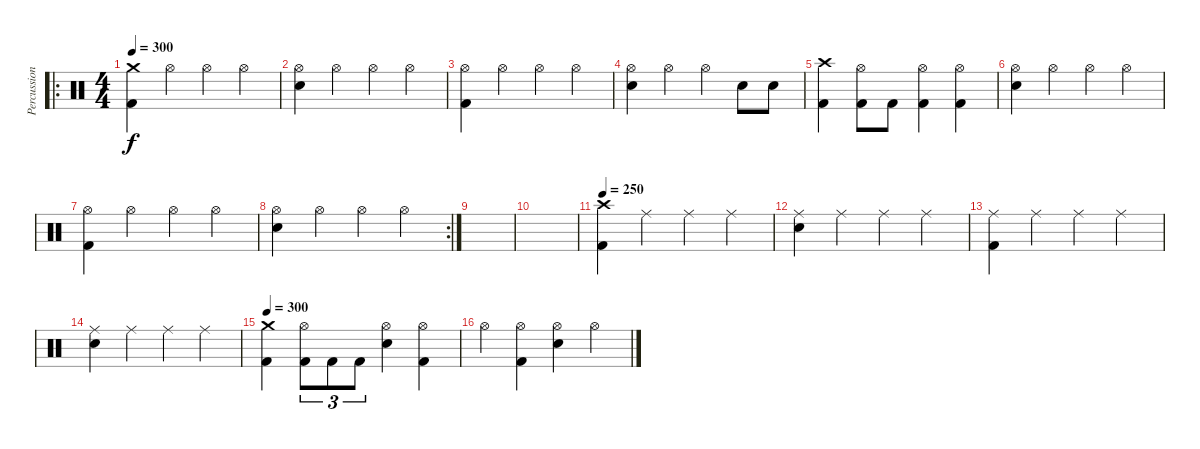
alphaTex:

\track ("Percussion" "Percussion") {instrument percussion}
\staff {score}
\articulation defaults
\ro
\ts (4 4)
\tempo 300
\clef neutral
\ks c
("Crash medium (hit)" "Kick (hit) 2").4{dy f} "Hi-Hat (open)".4 "Hi-Hat (open)".4 "Hi-Hat (open)".4 |
("Hi-Hat (open)" "Snare (hit) 2").4 "Hi-Hat (open)".4 "Hi-Hat (open)".4 "Hi-Hat (open)".4 |
("Hi-Hat (open)" "Kick (hit) 2").4 "Hi-Hat (open)".4 "Hi-Hat (open)".4 "Hi-Hat (open)".4 |
("Hi-Hat (open)" "Snare (hit) 2").4 "Hi-Hat (open)".4 "Hi-Hat (open)".4 "Snare (hit) 2".8 "Snare (hit) 2".8 |
("Crash high (hit)" "Kick (hit) 2").4 ("Hi-Hat (open)" "Kick (hit) 2").8 "Kick (hit) 2".8 ("Hi-Hat (open)" "Kick (hit) 2").4 ("Hi-Hat (open)" "Kick (hit) 2").4 |
("Hi-Hat (open)" "Snare (hit) 2").4 "Hi-Hat (open)".4 "Hi-Hat (open)".4 "Hi-Hat (open)".4 |
("Hi-Hat (open)" "Kick (hit) 2").4 "Hi-Hat (open)".4 "Hi-Hat (open)".4 "Hi-Hat (open)".4 |
\rc 2
("Hi-Hat (open)" "Snare (hit) 2").4 "Hi-Hat (open)".4 "Hi-Hat (open)".4 "Hi-Hat (open)".4 |
|
|
\tempo 250
("Crash high (hit)" "Kick (hit) 2").4 "Ride (middle)".4 "Ride (middle)".4 "Ride (middle)".4 |
("Ride (middle)" "Snare (hit) 2").4 "Ride (middle)".4 "Ride (middle)".4 "Ride (middle)".4 |
("Ride (middle)" "Kick (hit) 2").4 "Ride (middle)".4 "Ride (middle)".4 "Ride (middle)".4 |
("Ride (middle)" "Snare (hit) 2").4 "Ride (middle)".4 "Ride (middle)".4 "Ride (middle)".4 |
\tempo 300
("Crash medium (hit)" "Kick (hit) 2").4 ("Hi-Hat (open)" "Kick (hit) 2").8{tu (3 2)} "Kick (hit) 2".8{tu (3 2)} "Kick (hit) 2".8{tu (3 2)} ("Hi-Hat (open)" "Snare (hit) 2").4 ("Hi-Hat (open)" "Kick (hit) 2").4 |
"Hi-Hat (open)".4 ("Hi-Hat (open)" "Kick (hit) 2").4 ("Hi-Hat (open)" "Snare (hit) 2").4 "Hi-Hat (open)".4
